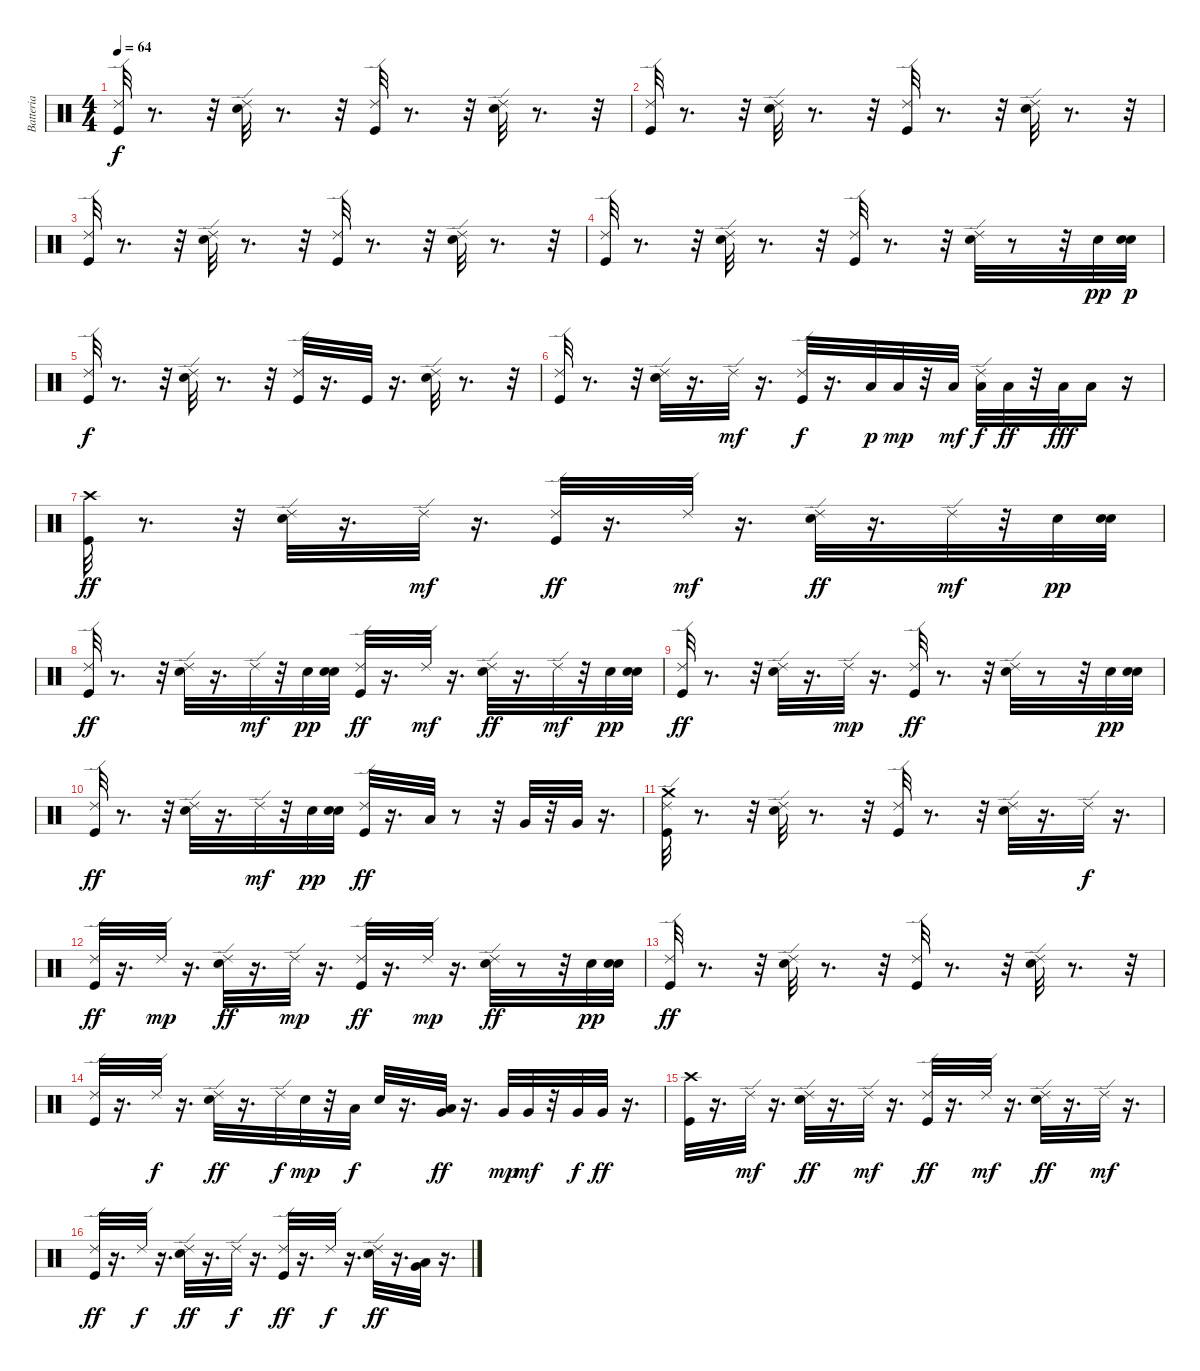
\track ("Batteria" "Batteria") {instrument percussion}
\staff {score}
\articulation defaults
\ts (4 4)
\tempo 64
\clef neutral
\ks c
("Kick (hit)" "Ride (edge) 2").32{dy f} r.8{d} r.32 ("Snare (hit) 2" "Ride (edge) 2").32 r.8{d} r.32 ("Kick (hit)" "Ride (edge) 2").32 r.8{d} r.32 ("Snare (hit) 2" "Ride (edge) 2").32 r.8{d} r.32 |
("Kick (hit)" "Ride (edge) 2").32 r.8{d} r.32 ("Snare (hit) 2" "Ride (edge) 2").32 r.8{d} r.32 ("Kick (hit)" "Ride (edge) 2").32 r.8{d} r.32 ("Snare (hit) 2" "Ride (edge) 2").32 r.8{d} r.32 |
("Kick (hit)" "Ride (edge) 2").32 r.8{d} r.32 ("Snare (hit) 2" "Ride (edge) 2").32 r.8{d} r.32 ("Kick (hit)" "Ride (edge) 2").32 r.8{d} r.32 ("Snare (hit) 2" "Ride (edge) 2").32 r.8{d} r.32 |
("Kick (hit)" "Ride (edge) 2").32 r.8{d} r.32 ("Snare (hit) 2" "Ride (edge) 2").32 r.8{d} r.32 ("Kick (hit)" "Ride (edge) 2").32 r.8{d} r.32 ("Snare (hit) 2" "Ride (edge) 2").32 r.8 r.32 "Snare (hit) 2".32{dy pp} ("Snare (hit) 2" "Snare (hit) 2").32{dy p} |
("Kick (hit)" "Ride (edge) 2").32{dy f} r.8{d} r.32 ("Snare (hit) 2" "Ride (edge) 2").32 r.8{d} r.32 ("Kick (hit)" "Ride (edge) 2").32 r.16{d} "Kick (hit)".32 r.16{d} ("Snare (hit) 2" "Ride (edge) 2").32 r.8{d} r.32 |
("Kick (hit)" "Ride (edge) 2").32 r.8{d} r.32 ("Snare (hit) 2" "Ride (edge) 2").32 r.16{d} "Ride (edge) 2".32{dy mf} r.16{d} ("Kick (hit)" "Ride (edge) 2").32{dy f} r.16{d} "Low Tom (hit)".32{dy p} "Low Tom (hit)".32{dy mp} r.32 "Low Tom (hit)".32{dy mf} ("Ride (edge) 2" "Low Tom (hit)").32{dy f} "Low Tom (hit)".32{dy ff} r.32 "Low Tom (hit)".32{dy fff} "Low Tom (hit)".16 r.16 |
("Kick (hit)" "Crash high (hit)").32{dy ff} r.8{d} r.32 ("Snare (hit) 2" "Ride (edge) 2").32 r.16{d} "Ride (edge) 2".32{dy mf} r.16{d} ("Kick (hit)" "Ride (edge) 2").32{dy ff} r.16{d} "Ride (edge) 2".32{dy mf} r.16{d} ("Snare (hit) 2" "Ride (edge) 2").32{dy ff} r.16{d} "Ride (edge) 2".32{dy mf} r.32 "Snare (hit) 2".32{dy pp} ("Snare (hit) 2" "Snare (hit) 2").32 |
("Kick (hit)" "Ride (edge) 2").32{dy ff} r.8{d} r.32 ("Ride (edge) 2" "Snare (hit) 2").32 r.16{d} "Ride (edge) 2".32{dy mf} r.32 "Snare (hit) 2".32{dy pp} ("Snare (hit) 2" "Snare (hit) 2").32 ("Ride (edge) 2" "Kick (hit)").32{dy ff} r.16{d} "Ride (edge) 2".32{dy mf} r.16{d} ("Ride (edge) 2" "Snare (hit) 2").32{dy ff} r.16{d} "Ride (edge) 2".32{dy mf} r.32 "Snare (hit) 2".32{dy pp} ("Snare (hit) 2" "Snare (hit) 2").32 |
("Ride (edge) 2" "Kick (hit)").32{dy ff} r.8{d} r.32 ("Ride (edge) 2" "Snare (hit) 2").32 r.16{d} "Ride (edge) 2".32{dy mp} r.16{d} ("Kick (hit)" "Ride (edge) 2").32{dy ff} r.8{d} r.32 ("Ride (edge) 2" "Snare (hit) 2").32 r.8 r.32 "Snare (hit) 2".32{dy pp} ("Snare (hit) 2" "Snare (hit) 2").32 |
("Ride (edge) 2" "Kick (hit)").32{dy ff} r.8{d} r.32 ("Snare (hit) 2" "Ride (edge) 2").32 r.16{d} "Ride (edge) 2".32{dy mf} r.32 "Snare (hit) 2".32{dy pp} ("Snare (hit) 2" "Snare (hit) 2").32 ("Kick (hit)" "Ride (edge) 2").32{dy ff} r.16{d} "Low Tom (hit)".32 r.8 r.32 "Very Low Tom (hit)".32 r.32 "Very Low Tom (hit)".32 r.16{d} |
("Ride (edge) 2" "Crash medium (hit)" "Kick (hit)").32 r.8{d} r.32 ("Snare (hit) 2" "Ride (edge) 2").32 r.8{d} r.32 ("Kick (hit)" "Ride (edge) 2").32 r.8{d} r.32 ("Snare (hit) 2" "Ride (edge) 2").32 r.16{d} "Ride (edge) 2".32{dy f} r.16{d} |
("Kick (hit)" "Ride (edge) 2").32{dy ff} r.16{d} "Ride (edge) 2".32{dy mp} r.16{d} ("Snare (hit) 2" "Ride (edge) 2").32{dy ff} r.16{d} "Ride (edge) 2".32{dy mp} r.16{d} ("Kick (hit)" "Ride (edge) 2").32{dy ff} r.16{d} "Ride (edge) 2".32{dy mp} r.16{d} ("Snare (hit) 2" "Ride (edge) 2").32{dy ff} r.8 r.32 "Snare (hit) 2".32{dy pp} ("Snare (hit) 2" "Snare (hit) 2").32 |
("Ride (edge) 2" "Kick (hit)").32{dy ff} r.8{d} r.32 ("Ride (edge) 2" "Snare (hit) 2").32 r.8{d} r.32 ("Ride (edge) 2" "Kick (hit)").32 r.8{d} r.32 ("Snare (hit) 2" "Ride (edge) 2").32 r.8{d} r.32 |
("Ride (edge) 2" "Kick (hit)").32 r.16{d} "Ride (edge) 2".32{dy f} r.16{d} ("Ride (edge) 2" "Snare (hit) 2").32{dy ff} r.16{d} "Ride (edge) 2".32{dy f} "Snare (hit) 2".32{dy mp} r.32 "Low Tom (hit)".32{dy f} "Snare (hit) 2".32 r.16{d} ("Low Tom (hit)" "Very Low Tom (hit)").32{dy ff} r.16{d} "Very Low Tom (hit)".32{dy mp} "Very Low Tom (hit)".32{dy mf} r.32 "Very Low Tom (hit)".32{dy f} "Very Low Tom (hit)".32{dy ff} r.16{d} |
("Crash high (hit)" "Kick (hit)").32 r.16{d} "Ride (edge) 2".32{dy mf} r.16{d} ("Snare (hit) 2" "Ride (edge) 2").32{dy ff} r.16{d} "Ride (edge) 2".32{dy mf} r.16{d} ("Kick (hit)" "Ride (edge) 2").32{dy ff} r.16{d} "Ride (edge) 2".32{dy mf} r.16{d} ("Snare (hit) 2" "Ride (edge) 2").32{dy ff} r.16{d} "Ride (edge) 2".32{dy mf} r.16{d} |
("Kick (hit)" "Ride (edge) 2").32{dy ff} r.16{d} "Ride (edge) 2".32{dy f} r.16{d} ("Snare (hit) 2" "Ride (edge) 2").32{dy ff} r.16{d} "Ride (edge) 2".32{dy f} r.16{d} ("Kick (hit)" "Ride (edge) 2").32{dy ff} r.16{d} "Ride (edge) 2".32{dy f} r.16{d} ("Snare (hit) 2" "Ride (edge) 2").32{dy ff} r.16{d} ("Very Low Tom (hit)" "Low Floor Tom (hit)").32 r.16{d}
